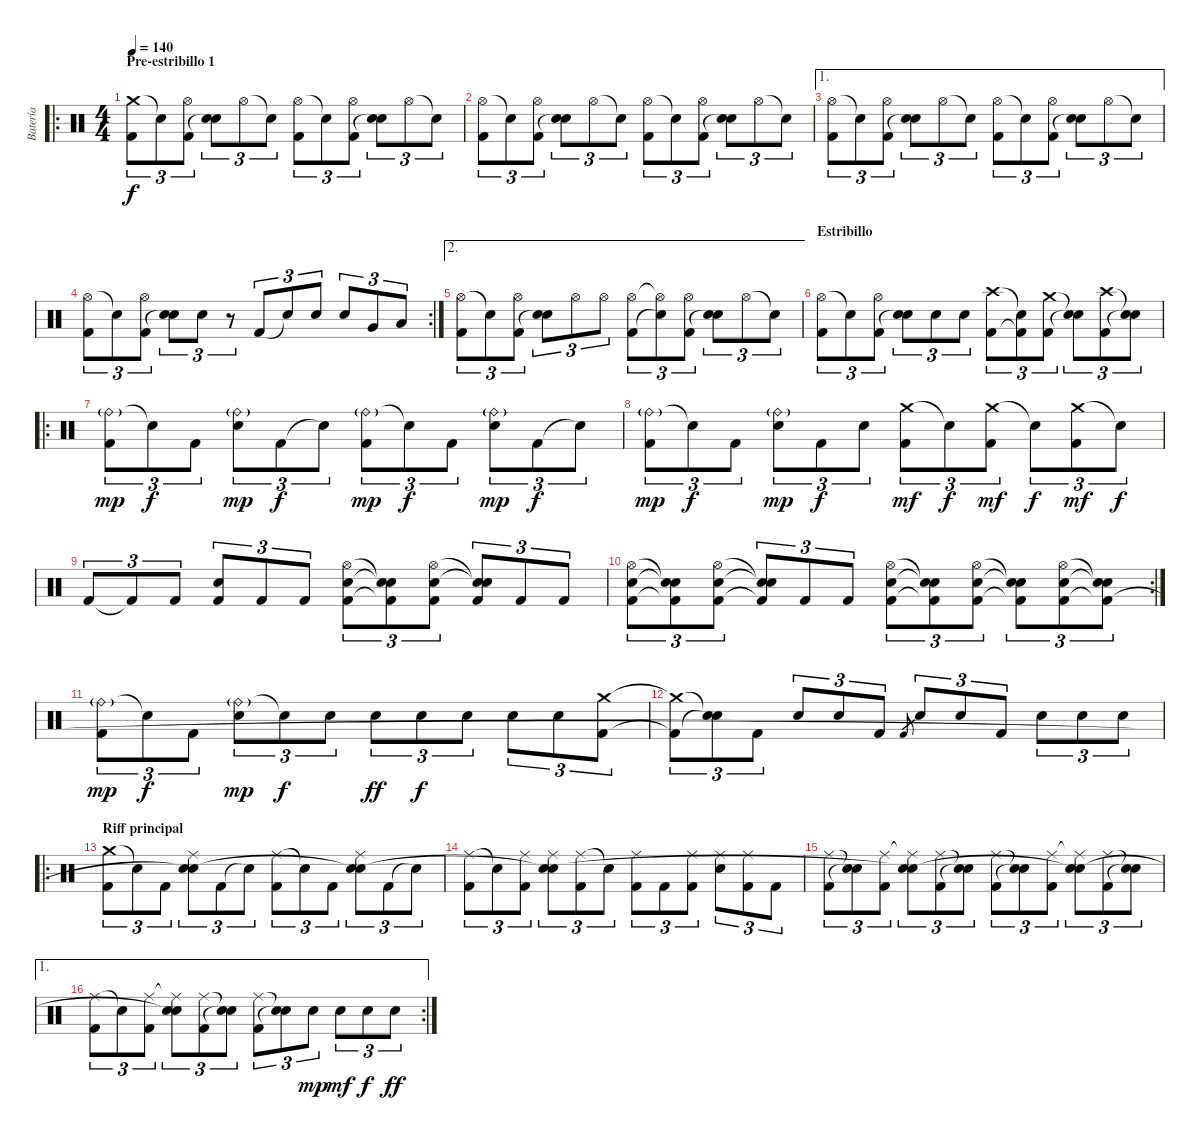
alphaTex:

\track ("Batería" "Batería") {instrument percussion}
\staff {score}
\articulation defaults
\ro
\ts (4 4)
\section ("" "Pre-estribillo 1")
\tempo 140
\clef neutral
\ks c
("Crash medium (hit)" "Kick (hit) 2").8{tu (3 2) dy f} "Snare (hit)"{t}.8{tu (3 2)} ("Hi-Hat (open)" "Kick (hit) 2").8{tu (3 2)} ("Snare (hit) 2" "Snare (hit)"{t}).8{tu (3 2)} "Hi-Hat (open)".8{tu (3 2)} "Snare (hit)"{t}.8{tu (3 2)} ("Hi-Hat (open)" "Kick (hit) 2").8{tu (3 2)} "Snare (hit)"{t}.8{tu (3 2)} ("Hi-Hat (open)" "Kick (hit) 2").8{tu (3 2)} ("Snare (hit) 2" "Snare (hit)"{t}).8{tu (3 2)} "Hi-Hat (open)".8{tu (3 2)} "Snare (hit)"{t}.8{tu (3 2)} |
("Hi-Hat (open)" "Kick (hit) 2").8{tu (3 2)} "Snare (hit)"{t}.8{tu (3 2)} ("Hi-Hat (open)" "Kick (hit) 2").8{tu (3 2)} ("Snare (hit) 2" "Snare (hit)"{t}).8{tu (3 2)} "Hi-Hat (open)".8{tu (3 2)} "Snare (hit)"{t}.8{tu (3 2)} ("Hi-Hat (open)" "Kick (hit) 2").8{tu (3 2)} "Snare (hit)"{t}.8{tu (3 2)} ("Hi-Hat (open)" "Kick (hit) 2").8{tu (3 2)} ("Snare (hit) 2" "Snare (hit)"{t}).8{tu (3 2)} "Hi-Hat (open)".8{tu (3 2)} "Snare (hit)"{t}.8{tu (3 2)} |
\ae 1
("Hi-Hat (open)" "Kick (hit) 2").8{tu (3 2)} "Snare (hit)"{t}.8{tu (3 2)} ("Hi-Hat (open)" "Kick (hit) 2").8{tu (3 2)} ("Snare (hit) 2" "Snare (hit)"{t}).8{tu (3 2)} "Hi-Hat (open)".8{tu (3 2)} "Snare (hit)"{t}.8{tu (3 2)} ("Hi-Hat (open)" "Kick (hit) 2").8{tu (3 2)} "Snare (hit)"{t}.8{tu (3 2)} ("Hi-Hat (open)" "Kick (hit) 2").8{tu (3 2)} ("Snare (hit) 2" "Snare (hit)"{t}).8{tu (3 2)} "Hi-Hat (open)".8{tu (3 2)} "Snare (hit)"{t}.8{tu (3 2)} |
\rc 2
("Hi-Hat (open)" "Kick (hit) 2").8{tu (3 2)} "Snare (hit)"{t}.8{tu (3 2)} ("Hi-Hat (open)" "Kick (hit) 2").8{tu (3 2)} ("Snare (hit) 2" "Snare (hit)"{t}).8{tu (3 2)} "Snare (hit) 2".8{tu (3 2)} r.8{tu (3 2)} "Kick (hit) 2".8{tu (3 2)} "Snare (hit)"{t}.8{tu (3 2)} "Snare (hit) 2".8{tu (3 2)} "Snare (hit) 2".8{tu (3 2)} "Very Low Tom (hit)".8{tu (3 2)} "Low Floor Tom (hit)".8{tu (3 2)} |
\ae 2
("Hi-Hat (open)" "Kick (hit) 2").8{tu (3 2)} "Snare (hit)"{t}.8{tu (3 2)} ("Hi-Hat (open)" "Kick (hit) 2").8{tu (3 2)} ("Snare (hit) 2" "Snare (hit)"{t}).8{tu (3 2)} "Hi-Hat (open)".8{tu (3 2)} "Hi-Hat (open)".8{tu (3 2)} ("Hi-Hat (open)" "Kick (hit) 2").8{tu (3 2)} ("Hi-Hat (open)"{t} "Snare (hit)"{t}).8{tu (3 2)} ("Hi-Hat (open)" "Kick (hit) 2").8{tu (3 2)} ("Snare (hit) 2" "Snare (hit)"{t}).8{tu (3 2)} "Hi-Hat (open)".8{tu (3 2)} "Snare (hit)"{t}.8{tu (3 2)} |
\section ("" "Estribillo")
("Hi-Hat (open)" "Kick (hit) 2").8{tu (3 2)} "Snare (hit)"{t}.8{tu (3 2)} ("Hi-Hat (open)" "Kick (hit) 2").8{tu (3 2)} ("Snare (hit) 2" "Snare (hit)"{t}).8{tu (3 2)} "Snare (hit) 2".8{tu (3 2)} "Snare (hit) 2".8{tu (3 2)} ("Crash high (hit)" "Kick (hit) 2").8{tu (3 2)} ("Snare (hit)"{t} "Kick (hit) 2"{t}).8{tu (3 2)} ("Crash medium (hit)" "Kick (hit) 2").8{tu (3 2)} ("Snare (hit)"{t} "Snare (hit)"{t}).8{tu (3 2)} ("Crash high (hit)" "Kick (hit) 2").8{tu (3 2)} ("Snare (hit)"{t} "Snare (hit)"{t}).8{tu (3 2)} |
\ro
("Ride (bell)"{g} "Kick (hit) 2").8{tu (3 2) dy mp} "Snare (hit)"{t}.8{tu (3 2) dy f} "Kick (hit) 2".8{tu (3 2)} ("Ride (bell)"{g} "Snare (hit) 2").8{tu (3 2) dy mp} "Kick (hit) 2".8{tu (3 2) dy f} "Snare (hit)"{t}.8{tu (3 2)} ("Ride (bell)"{g} "Kick (hit) 2").8{tu (3 2) dy mp} "Snare (hit)"{t}.8{tu (3 2) dy f} "Kick (hit) 2".8{tu (3 2)} ("Ride (bell)"{g} "Snare (hit) 2").8{tu (3 2) dy mp} "Kick (hit) 2".8{tu (3 2) dy f} "Snare (hit)"{t}.8{tu (3 2)} |
("Ride (bell)"{g} "Kick (hit) 2").8{tu (3 2) dy mp} "Snare (hit)"{t}.8{tu (3 2) dy f} "Kick (hit) 2".8{tu (3 2)} ("Ride (bell)"{g} "Snare (hit) 2").8{tu (3 2) dy mp} "Kick (hit) 2".8{tu (3 2) dy f} "Snare (hit) 2".8{tu (3 2)} ("Crash medium (hit)" "Kick (hit) 2").8{tu (3 2) dy mf} "Snare (hit)"{t}.8{tu (3 2) dy f} ("Crash medium (hit)" "Kick (hit) 2").8{tu (3 2) dy mf} "Snare (hit)"{t}.8{tu (3 2) dy f} ("Crash medium (hit)" "Kick (hit) 2").8{tu (3 2) dy mf} "Snare (hit)"{t}.8{tu (3 2) dy f} |
"Kick (hit) 2".8{tu (3 2)} "Kick (hit) 2"{t}.8{tu (3 2)} "Kick (hit) 2".8{tu (3 2)} ("Snare (hit) 2" "Kick (hit) 2").8{tu (3 2)} "Kick (hit) 2".8{tu (3 2)} "Kick (hit) 2".8{tu (3 2)} ("Hi-Hat (open)" "Snare (hit) 2" "Kick (hit) 2").8{tu (3 2)} ("Snare (hit)"{t} "Snare (hit)"{t} "Kick (hit) 2"{t}).8{tu (3 2)} ("Hi-Hat (open)" "Snare (hit) 2" "Kick (hit) 2").8{tu (3 2)} ("Snare (hit)"{t} "Snare (hit)"{t} "Kick (hit) 2").8{tu (3 2)} "Kick (hit) 2".8{tu (3 2)} "Kick (hit) 2".8{tu (3 2)} |
\rc 2
("Hi-Hat (open)" "Snare (hit) 2" "Kick (hit) 2").8{tu (3 2)} ("Snare (hit)"{t} "Snare (hit)"{t} "Kick (hit) 2"{t}).8{tu (3 2)} ("Hi-Hat (open)" "Snare (hit) 2" "Kick (hit) 2").8{tu (3 2)} ("Snare (hit)"{t} "Snare (hit) 2"{t} "Kick (hit) 2"{t}).8{tu (3 2)} "Kick (hit) 2".8{tu (3 2)} "Kick (hit) 2".8{tu (3 2)} ("Hi-Hat (open)" "Snare (hit) 2" "Kick (hit) 2").8{tu (3 2)} ("Snare (hit)"{t} "Snare (hit)"{t} "Kick (hit) 2"{t}).8{tu (3 2)} ("Hi-Hat (open)" "Snare (hit) 2" "Kick (hit) 2").8{tu (3 2)} ("Snare (hit)"{t} "Snare (hit)"{t} "Kick (hit) 2"{t}).8{tu (3 2)} ("Hi-Hat (open)" "Snare (hit) 2" "Kick (hit) 2").8{tu (3 2)} ("Snare (hit)"{t} "Snare (hit)"{t} "Kick (hit) 2"{t}).8{tu (3 2)} |
("Ride (bell)"{g} "Kick (hit) 2").8{tu (3 2) dy mp} "Snare (hit)"{t}.8{tu (3 2) dy f} "Kick (hit) 2".8{tu (3 2)} ("Ride (bell)"{g} "Snare (hit) 2").8{tu (3 2) dy mp} "Snare (hit)"{t}.8{tu (3 2) dy f} "Snare (hit) 2".8{tu (3 2)} "Snare (hit) 2".8{tu (3 2) dy ff} "Snare (hit) 2".8{tu (3 2) dy f} "Snare (hit) 2".8{tu (3 2)} "Snare (hit) 2".8{tu (3 2)} "Snare (hit) 2".8{tu (3 2)} ("Crash medium (hit)" "Kick (hit) 2").8{tu (3 2)} |
("Crash medium (hit)"{t} "Kick (hit) 2"{t}).8{tu (3 2)} ("Snare (hit)"{t} "Snare (hit)"{t}).8{tu (3 2)} "Kick (hit) 2".8{tu (3 2)} "Snare (hit) 2".8{tu (3 2)} "Snare (hit) 2".8{tu (3 2)} "Kick (hit) 2".8{tu (3 2)} "Kick (hit) 2".8{gr} "Snare (hit) 2".8{tu (3 2)} "Snare (hit) 2".8{tu (3 2)} "Kick (hit) 2".8{tu (3 2)} "Snare (hit) 2".8{tu (3 2)} "Snare (hit) 2".8{tu (3 2)} "Snare (hit) 2".8{tu (3 2)} |
\ro
\section ("" "Riff principal")
("Crash medium (hit)" "Kick (hit) 2").8{tu (3 2)} "Snare (hit)"{t}.8{tu (3 2)} "Kick (hit) 2".8{tu (3 2)} ("Ride (middle)" "Snare (hit) 2" "Snare (hit)"{t}).8{tu (3 2)} "Kick (hit) 2".8{tu (3 2)} "Snare (hit)"{t}.8{tu (3 2)} ("Ride (middle)" "Kick (hit) 2").8{tu (3 2)} "Snare (hit)"{t}.8{tu (3 2)} "Kick (hit) 2".8{tu (3 2)} ("Ride (middle)" "Snare (hit) 2" "Snare (hit)"{t}).8{tu (3 2)} "Kick (hit) 2".8{tu (3 2)} "Snare (hit)"{t}.8{tu (3 2)} |
("Ride (middle)" "Kick (hit) 2").8{tu (3 2)} "Snare (hit)"{t}.8{tu (3 2)} ("Ride (middle)" "Kick (hit) 2").8{tu (3 2)} ("Ride (middle)" "Snare (hit) 2" "Snare (hit)"{t}).8{tu (3 2)} ("Ride (middle)" "Kick (hit) 2").8{tu (3 2)} "Snare (hit)"{t}.8{tu (3 2)} ("Ride (middle)" "Kick (hit) 2").8{tu (3 2)} "Kick (hit) 2".8{tu (3 2)} ("Ride (middle)" "Kick (hit) 2").8{tu (3 2)} ("Ride (middle)" "Snare (hit) 2").8{tu (3 2)} ("Ride (middle)" "Kick (hit) 2").8{tu (3 2)} "Kick (hit) 2".8{tu (3 2)} |
("Ride (middle)" "Kick (hit) 2").8{tu (3 2)} ("Snare (hit)"{t} "Snare (hit)"{t}).8{tu (3 2)} ("Ride (middle)" "Kick (hit) 2").8{tu (3 2)} ("Ride (middle)"{t} "Snare (hit) 2" "Snare (hit)"{t}).8{tu (3 2)} ("Ride (middle)" "Kick (hit) 2").8{tu (3 2)} ("Snare (hit)"{t} "Snare (hit)"{t}).8{tu (3 2)} ("Ride (middle)" "Kick (hit) 2").8{tu (3 2)} ("Snare (hit)"{t} "Snare (hit)"{t}).8{tu (3 2)} ("Ride (middle)" "Kick (hit) 2").8{tu (3 2)} ("Ride (middle)"{t} "Snare (hit) 2" "Snare (hit)"{t}).8{tu (3 2)} ("Ride (middle)" "Kick (hit) 2").8{tu (3 2)} ("Snare (hit)"{t} "Snare (hit)"{t}).8{tu (3 2)} |
\ae 1
\rc 2
("Ride (middle)" "Kick (hit) 2").8{tu (3 2)} "Snare (hit)"{t}.8{tu (3 2)} ("Ride (middle)" "Kick (hit) 2").8{tu (3 2)} ("Ride (middle)"{t} "Snare (hit) 2" "Snare (hit)"{t}).8{tu (3 2)} ("Ride (middle)" "Kick (hit) 2").8{tu (3 2)} ("Snare (hit)"{t} "Snare (hit)"{t}).8{tu (3 2)} ("Ride (middle)" "Kick (hit) 2").8{tu (3 2)} ("Snare (hit)"{t} "Snare (hit)"{t}).8{tu (3 2)} "Snare (hit) 2".8{tu (3 2) dy mp} "Snare (hit) 2".8{tu (3 2) dy mf} "Snare (hit) 2".8{tu (3 2) dy f} "Snare (hit) 2".8{tu (3 2) dy ff}
